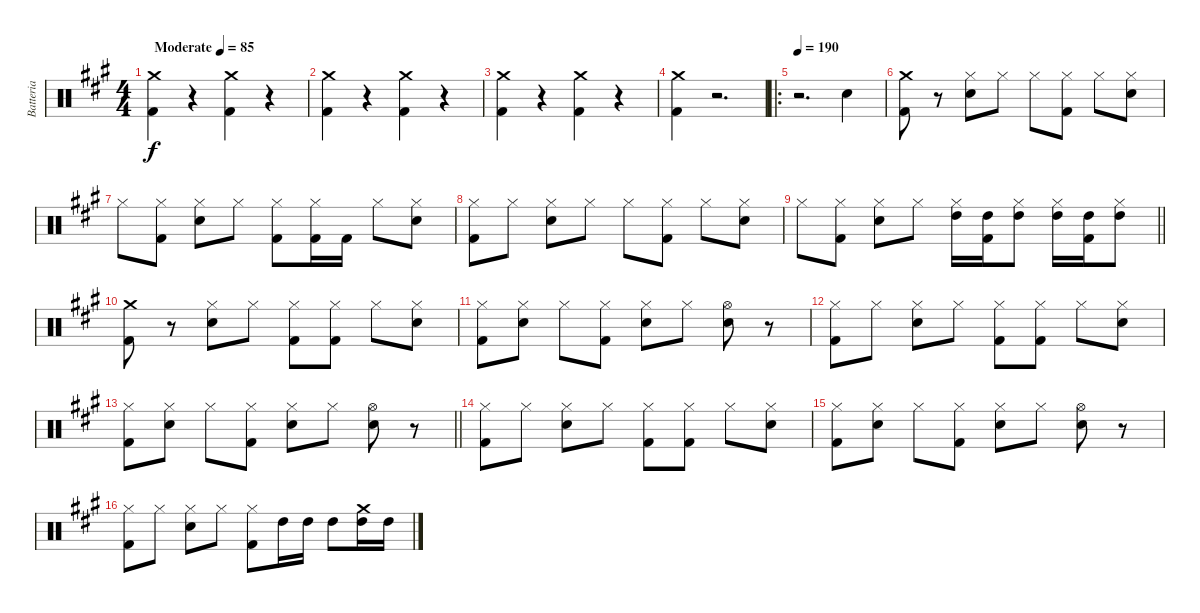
\track ("Batteria" "Batteria") {instrument percussion}
\staff {score}
\articulation defaults
\ts (4 4)
\tempo (85 "Moderate")
\clef neutral
\ks a
("Crash medium (hit)" "Kick (hit) 2").4{dy f} r.4 ("Crash medium (hit)" "Kick (hit) 2").4 r.4 |
("Crash medium (hit)" "Kick (hit) 2").4 r.4 ("Crash medium (hit)" "Kick (hit) 2").4 r.4 |
("Crash medium (hit)" "Kick (hit) 2").4 r.4 ("Crash medium (hit)" "Kick (hit) 2").4 r.4 |
("Crash medium (hit)" "Kick (hit) 2").4 r.2{d} |
\ro
\tempo 190
r.2{d} "Electric Snare (hit)".4 |
("Crash medium (hit)" "Kick (hit) 2").8 r.8 ("Hi-Hat (closed)" "Electric Snare (hit)").8 "Hi-Hat (closed)".8 "Hi-Hat (closed)".8 ("Hi-Hat (closed)" "Kick (hit) 2").8 "Hi-Hat (closed)".8 ("Hi-Hat (closed)" "Electric Snare (hit)").8 |
"Hi-Hat (closed)".8 ("Hi-Hat (closed)" "Kick (hit) 2").8 ("Hi-Hat (closed)" "Electric Snare (hit)").8 "Hi-Hat (closed)".8 ("Hi-Hat (closed)" "Kick (hit) 2").8 ("Hi-Hat (closed)" "Kick (hit) 2").16 "Kick (hit) 2".16 "Hi-Hat (closed)".8 ("Hi-Hat (closed)" "Electric Snare (hit)").8 |
("Hi-Hat (closed)" "Kick (hit) 2").8 "Hi-Hat (closed)".8 ("Hi-Hat (closed)" "Electric Snare (hit)").8 "Hi-Hat (closed)".8 "Hi-Hat (closed)".8 ("Hi-Hat (closed)" "Kick (hit) 2").8 "Hi-Hat (closed)".8 ("Hi-Hat (closed)" "Electric Snare (hit)").8 |
\barLineRight lightlight "Hi-Hat (closed)".8
("Hi-Hat (closed)" "Kick (hit) 2").8 ("Hi-Hat (closed)" "Electric Snare (hit)").8 "Hi-Hat (closed)".8 ("Hi-Hat (closed)" "High Tom (hit)").16 ("High Tom (hit)" "Kick (hit) 2").16 ("Hi-Hat (closed)" "High Tom (hit)").8 ("Hi-Hat (closed)" "High Tom (hit)").16 ("High Tom (hit)" "Kick (hit) 2").16 ("Hi-Hat (closed)" "High Tom (hit)").8 |
("Crash medium (hit)" "Kick (hit) 2").8 r.8 ("Hi-Hat (closed)" "Electric Snare (hit)").8 "Hi-Hat (closed)".8 ("Hi-Hat (closed)" "Kick (hit) 2").8 ("Hi-Hat (closed)" "Kick (hit) 2").8 "Hi-Hat (closed)".8 ("Hi-Hat (closed)" "Electric Snare (hit)").8 |
("Hi-Hat (closed)" "Kick (hit) 2").8 ("Hi-Hat (closed)" "Electric Snare (hit)").8 "Hi-Hat (closed)".8 ("Hi-Hat (closed)" "Kick (hit) 2").8 ("Hi-Hat (closed)" "Electric Snare (hit)").8 "Hi-Hat (closed)".8 ("Hi-Hat (open)" "Electric Snare (hit)").8 r.8 |
("Hi-Hat (closed)" "Kick (hit) 2").8 "Hi-Hat (closed)".8 ("Hi-Hat (closed)" "Electric Snare (hit)").8 "Hi-Hat (closed)".8 ("Hi-Hat (closed)" "Kick (hit) 2").8 ("Hi-Hat (closed)" "Kick (hit) 2").8 "Hi-Hat (closed)".8 ("Hi-Hat (closed)" "Electric Snare (hit)").8 |
\barLineRight lightlight
("Hi-Hat (closed)" "Kick (hit) 2").8 ("Hi-Hat (closed)" "Electric Snare (hit)").8 "Hi-Hat (closed)".8 ("Hi-Hat (closed)" "Kick (hit) 2").8 ("Hi-Hat (closed)" "Electric Snare (hit)").8 "Hi-Hat (closed)".8 ("Hi-Hat (open)" "Electric Snare (hit)").8 r.8 |
("Hi-Hat (closed)" "Kick (hit) 2").8 "Hi-Hat (closed)".8 ("Hi-Hat (closed)" "Electric Snare (hit)").8 "Hi-Hat (closed)".8 ("Hi-Hat (closed)" "Kick (hit) 2").8 ("Hi-Hat (closed)" "Kick (hit) 2").8 "Hi-Hat (closed)".8 ("Hi-Hat (closed)" "Electric Snare (hit)").8 |
("Hi-Hat (closed)" "Kick (hit) 2").8 ("Hi-Hat (closed)" "Electric Snare (hit)").8 "Hi-Hat (closed)".8 ("Hi-Hat (closed)" "Kick (hit) 2").8 ("Hi-Hat (closed)" "Electric Snare (hit)").8 "Hi-Hat (closed)".8 ("Hi-Hat (open)" "Electric Snare (hit)").8 r.8 |
("Hi-Hat (closed)" "Kick (hit) 2").8 "Hi-Hat (closed)".8 ("Hi-Hat (closed)" "Electric Snare (hit)").8 "Hi-Hat (closed)".8 ("Hi-Hat (closed)" "Kick (hit) 2").8 "High Tom (hit)".16 "High Tom (hit)".16 "High Tom (hit)".8 ("Crash medium (hit)" "High Tom (hit)").16 "High Tom (hit)".16
